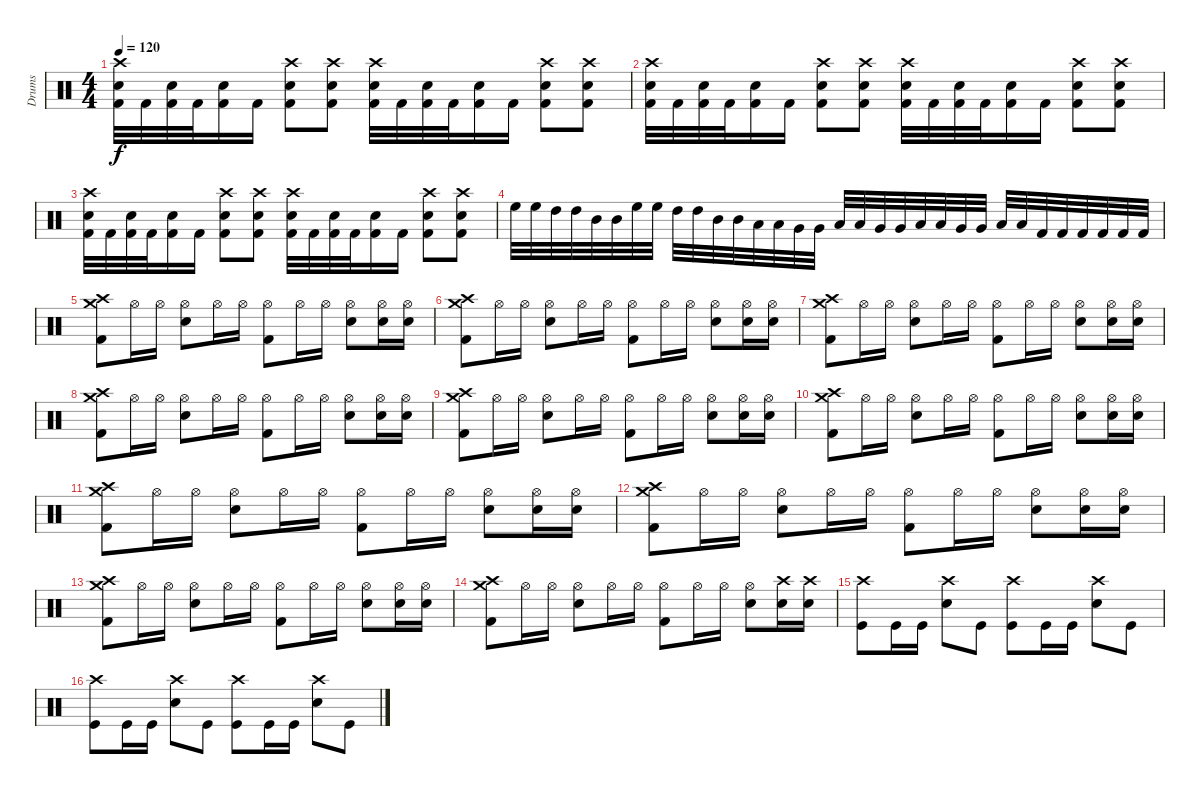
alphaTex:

\track ("Drums" "Drums") {instrument percussion}
\staff {score}
\articulation defaults
\ts (4 4)
\tempo 120
\clef neutral
\ks c
("Crash high (hit)" "Snare (hit) 2" "Kick (hit) 2").32{dy f} "Kick (hit) 2".32 ("Snare (hit) 2" "Kick (hit) 2").32 "Kick (hit) 2".32 ("Snare (hit) 2" "Kick (hit) 2").16 "Kick (hit) 2".16 ("Crash high (hit)" "Snare (hit) 2" "Kick (hit) 2").8 ("Crash high (hit)" "Snare (hit) 2" "Kick (hit) 2").8 ("Crash high (hit)" "Snare (hit) 2" "Kick (hit) 2").32 "Kick (hit) 2".32 ("Snare (hit) 2" "Kick (hit) 2").32 "Kick (hit) 2".32 ("Snare (hit) 2" "Kick (hit) 2").16 "Kick (hit) 2".16 ("Crash high (hit)" "Snare (hit) 2" "Kick (hit) 2").8 ("Crash high (hit)" "Snare (hit) 2" "Kick (hit) 2").8 |
("Crash high (hit)" "Snare (hit) 2" "Kick (hit) 2").32 "Kick (hit) 2".32 ("Snare (hit) 2" "Kick (hit) 2").32 "Kick (hit) 2".32 ("Snare (hit) 2" "Kick (hit) 2").16 "Kick (hit) 2".16 ("Crash high (hit)" "Snare (hit) 2" "Kick (hit) 2").8 ("Crash high (hit)" "Snare (hit) 2" "Kick (hit) 2").8 ("Crash high (hit)" "Snare (hit) 2" "Kick (hit) 2").32 "Kick (hit) 2".32 ("Snare (hit) 2" "Kick (hit) 2").32 "Kick (hit) 2".32 ("Snare (hit) 2" "Kick (hit) 2").16 "Kick (hit) 2".16 ("Crash high (hit)" "Snare (hit) 2" "Kick (hit) 2").8 ("Crash high (hit)" "Snare (hit) 2" "Kick (hit) 2").8 |
("Crash high (hit)" "Snare (hit) 2" "Kick (hit) 2").32 "Kick (hit) 2".32 ("Snare (hit) 2" "Kick (hit) 2").32 "Kick (hit) 2".32 ("Snare (hit) 2" "Kick (hit) 2").16 "Kick (hit) 2".16 ("Crash high (hit)" "Snare (hit) 2" "Kick (hit) 2").8 ("Crash high (hit)" "Snare (hit) 2" "Kick (hit) 2").8 ("Crash high (hit)" "Snare (hit) 2" "Kick (hit) 2").32 "Kick (hit) 2".32 ("Snare (hit) 2" "Kick (hit) 2").32 "Kick (hit) 2".32 ("Snare (hit) 2" "Kick (hit) 2").16 "Kick (hit) 2".16 ("Crash high (hit)" "Snare (hit) 2" "Kick (hit) 2").8 ("Crash high (hit)" "Snare (hit) 2" "Kick (hit) 2").8 |
"High Floor Tom (hit)".32 "High Floor Tom (hit)".32 "High Tom (hit)".32 "High Tom (hit)".32 "Mid Tom (hit)".32 "Mid Tom (hit)".32 "High Floor Tom (hit)".32 "High Floor Tom (hit)".32 "High Tom (hit)".32 "High Tom (hit)".32 "Mid Tom (hit)".32 "Mid Tom (hit)".32 "Low Tom (hit)".32 "Low Tom (hit)".32 "Very Low Tom (hit)".32 "Very Low Tom (hit)".32 "Low Tom (hit)".32 "Low Tom (hit)".32 "Very Low Tom (hit)".32 "Very Low Tom (hit)".32 "Low Floor Tom (hit)".32 "Low Floor Tom (hit)".32 "Very Low Tom (hit)".32 "Very Low Tom (hit)".32 "Low Floor Tom (hit)".32 "Low Floor Tom (hit)".32 "Kick (hit) 2".32 "Kick (hit) 2".32 "Kick (hit) 2".32 "Kick (hit) 2".32 "Kick (hit) 2".32 "Kick (hit) 2".32 |
("Crash medium (hit)" "Crash high (hit)" "Kick (hit) 2").8 "Hi-Hat (open)".16 "Hi-Hat (open)".16 ("Hi-Hat (open)" "Snare (hit) 2").8 "Hi-Hat (open)".16 "Hi-Hat (open)".16 ("Hi-Hat (open)" "Kick (hit) 2").8 "Hi-Hat (open)".16 "Hi-Hat (open)".16 ("Hi-Hat (open)" "Snare (hit) 2").8 ("Hi-Hat (open)" "Snare (hit) 2").16 ("Hi-Hat (open)" "Snare (hit) 2").16 |
("Crash medium (hit)" "Crash high (hit)" "Kick (hit) 2").8 "Hi-Hat (open)".16 "Hi-Hat (open)".16 ("Hi-Hat (open)" "Snare (hit) 2").8 "Hi-Hat (open)".16 "Hi-Hat (open)".16 ("Hi-Hat (open)" "Kick (hit) 2").8 "Hi-Hat (open)".16 "Hi-Hat (open)".16 ("Hi-Hat (open)" "Snare (hit) 2").8 ("Hi-Hat (open)" "Snare (hit) 2").16 ("Hi-Hat (open)" "Snare (hit) 2").16 |
("Crash medium (hit)" "Crash high (hit)" "Kick (hit) 2").8 "Hi-Hat (open)".16 "Hi-Hat (open)".16 ("Hi-Hat (open)" "Snare (hit) 2").8 "Hi-Hat (open)".16 "Hi-Hat (open)".16 ("Hi-Hat (open)" "Kick (hit) 2").8 "Hi-Hat (open)".16 "Hi-Hat (open)".16 ("Hi-Hat (open)" "Snare (hit) 2").8 ("Hi-Hat (open)" "Snare (hit) 2").16 ("Hi-Hat (open)" "Snare (hit) 2").16 |
("Crash medium (hit)" "Crash high (hit)" "Kick (hit) 2").8 "Hi-Hat (open)".16 "Hi-Hat (open)".16 ("Hi-Hat (open)" "Snare (hit) 2").8 "Hi-Hat (open)".16 "Hi-Hat (open)".16 ("Hi-Hat (open)" "Kick (hit) 2").8 "Hi-Hat (open)".16 "Hi-Hat (open)".16 ("Hi-Hat (open)" "Snare (hit) 2").8 ("Hi-Hat (open)" "Snare (hit) 2").16 ("Hi-Hat (open)" "Snare (hit) 2").16 |
("Crash medium (hit)" "Crash high (hit)" "Kick (hit) 2").8 "Hi-Hat (open)".16 "Hi-Hat (open)".16 ("Hi-Hat (open)" "Snare (hit) 2").8 "Hi-Hat (open)".16 "Hi-Hat (open)".16 ("Hi-Hat (open)" "Kick (hit) 2").8 "Hi-Hat (open)".16 "Hi-Hat (open)".16 ("Hi-Hat (open)" "Snare (hit) 2").8 ("Hi-Hat (open)" "Snare (hit) 2").16 ("Hi-Hat (open)" "Snare (hit) 2").16 |
("Crash medium (hit)" "Crash high (hit)" "Kick (hit) 2").8 "Hi-Hat (open)".16 "Hi-Hat (open)".16 ("Hi-Hat (open)" "Snare (hit) 2").8 "Hi-Hat (open)".16 "Hi-Hat (open)".16 ("Hi-Hat (open)" "Kick (hit) 2").8 "Hi-Hat (open)".16 "Hi-Hat (open)".16 ("Hi-Hat (open)" "Snare (hit) 2").8 ("Hi-Hat (open)" "Snare (hit) 2").16 ("Hi-Hat (open)" "Snare (hit) 2").16 |
("Crash medium (hit)" "Crash high (hit)" "Kick (hit) 2").8 "Hi-Hat (open)".16 "Hi-Hat (open)".16 ("Hi-Hat (open)" "Snare (hit) 2").8 "Hi-Hat (open)".16 "Hi-Hat (open)".16 ("Hi-Hat (open)" "Kick (hit) 2").8 "Hi-Hat (open)".16 "Hi-Hat (open)".16 ("Hi-Hat (open)" "Snare (hit) 2").8 ("Hi-Hat (open)" "Snare (hit) 2").16 ("Hi-Hat (open)" "Snare (hit) 2").16 |
("Crash medium (hit)" "Crash high (hit)" "Kick (hit) 2").8 "Hi-Hat (open)".16 "Hi-Hat (open)".16 ("Hi-Hat (open)" "Snare (hit) 2").8 "Hi-Hat (open)".16 "Hi-Hat (open)".16 ("Hi-Hat (open)" "Kick (hit) 2").8 "Hi-Hat (open)".16 "Hi-Hat (open)".16 ("Hi-Hat (open)" "Snare (hit) 2").8 ("Hi-Hat (open)" "Snare (hit) 2").16 ("Hi-Hat (open)" "Snare (hit) 2").16 |
("Crash medium (hit)" "Crash high (hit)" "Kick (hit) 2").8 "Hi-Hat (open)".16 "Hi-Hat (open)".16 ("Hi-Hat (open)" "Snare (hit) 2").8 "Hi-Hat (open)".16 "Hi-Hat (open)".16 ("Hi-Hat (open)" "Kick (hit) 2").8 "Hi-Hat (open)".16 "Hi-Hat (open)".16 ("Hi-Hat (open)" "Snare (hit) 2").8 ("Hi-Hat (open)" "Snare (hit) 2").16 ("Hi-Hat (open)" "Snare (hit) 2").16 |
("Crash medium (hit)" "Crash high (hit)" "Kick (hit) 2").8 "Hi-Hat (open)".16 "Hi-Hat (open)".16 ("Hi-Hat (open)" "Snare (hit) 2").8 "Hi-Hat (open)".16 "Hi-Hat (open)".16 ("Hi-Hat (open)" "Kick (hit) 2").8 "Hi-Hat (open)".16 "Hi-Hat (open)".16 ("Hi-Hat (open)" "Snare (hit) 2").8 ("Crash high (hit)" "Snare (hit) 2").16 ("Crash high (hit)" "Snare (hit) 2").16 |
("Crash high (hit)" "Kick (hit)").8 "Kick (hit)".16 "Kick (hit)".16 ("Crash high (hit)" "Snare (hit) 2").8 "Kick (hit)".8 ("Crash high (hit)" "Kick (hit)").8 "Kick (hit)".16 "Kick (hit)".16 ("Crash high (hit)" "Snare (hit) 2").8 "Kick (hit)".8 |
("Crash high (hit)" "Kick (hit)").8 "Kick (hit)".16 "Kick (hit)".16 ("Crash high (hit)" "Snare (hit) 2").8 "Kick (hit)".8 ("Crash high (hit)" "Kick (hit)").8 "Kick (hit)".16 "Kick (hit)".16 ("Crash high (hit)" "Snare (hit) 2").8 "Kick (hit)".8
